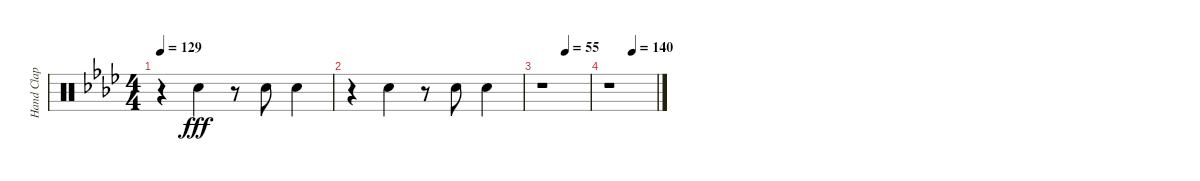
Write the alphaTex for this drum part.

\track ("Hand Clap" "Hand Clap") {instrument percussion}
\staff {score}
\articulation defaults
\ts (4 4)
\tempo 129
\clef neutral
\ks ab
r.4{dy fff} "Hand Clap (hit)".4 r.8 "Hand Clap (hit)".8 "Hand Clap (hit)".4 |
r.4 "Hand Clap (hit)".4 r.8 "Hand Clap (hit)".8 "Hand Clap (hit)".4 |
\tempo (55 0.5)
r.1 |
\tempo (140 0.5)
r.1
